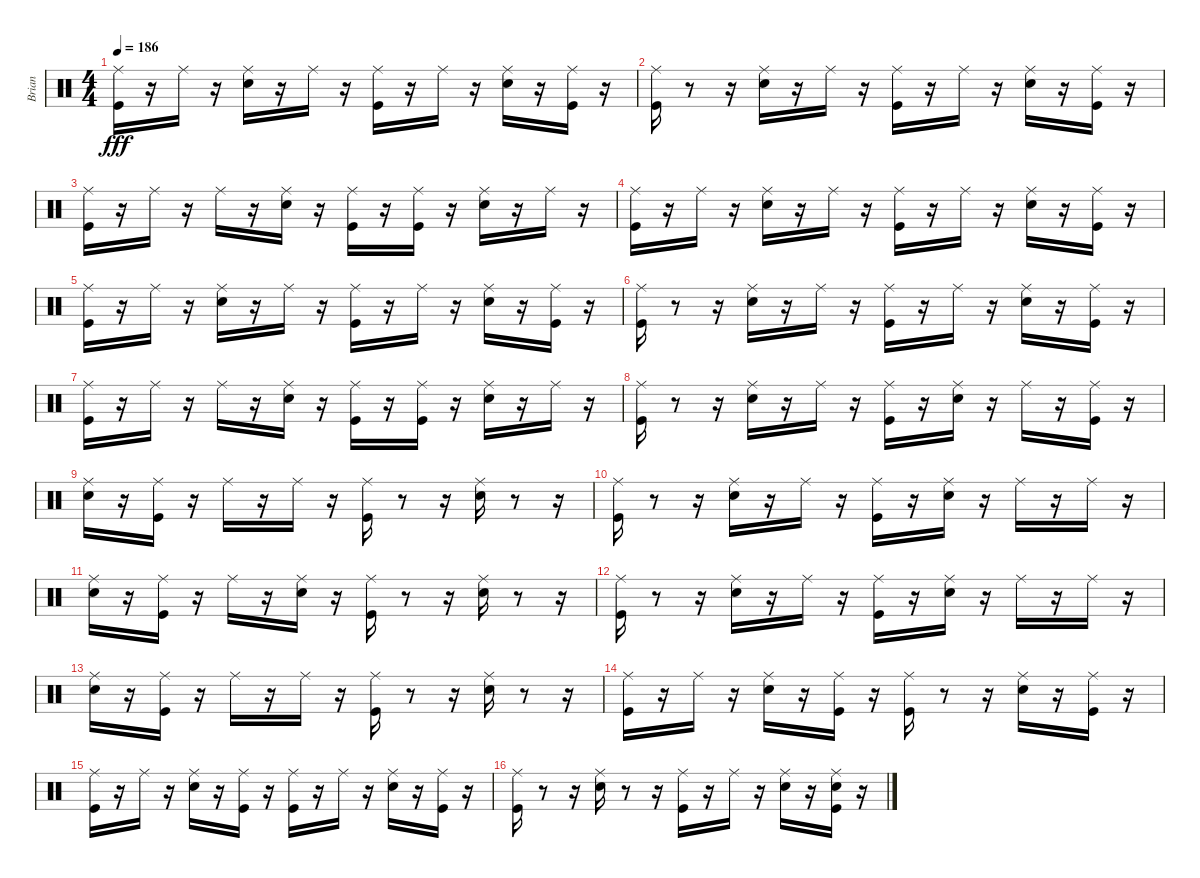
\track ("Brian" "Brian") {instrument percussion}
\staff {score}
\articulation defaults
\ts (4 4)
\tempo 186
\clef neutral
\ks c
("Ride (middle)" "Kick (hit)").16{dy fff} r.16 "Ride (middle)".16 r.16 ("Ride (middle)" "Snare (hit) 2").16 r.16 "Ride (middle)".16 r.16 ("Ride (middle)" "Kick (hit)").16 r.16 "Ride (middle)".16 r.16 ("Ride (middle)" "Snare (hit) 2").16 r.16 ("Ride (middle)" "Kick (hit)").16 r.16 |
("Ride (middle)" "Kick (hit)").16 r.8 r.16 ("Ride (middle)" "Snare (hit) 2").16 r.16 "Ride (middle)".16 r.16 ("Ride (middle)" "Kick (hit)").16 r.16 "Ride (middle)".16 r.16 ("Ride (middle)" "Snare (hit) 2").16 r.16 ("Ride (middle)" "Kick (hit)").16 r.16 |
("Ride (middle)" "Kick (hit)").16 r.16 "Ride (middle)".16 r.16 "Ride (middle)".16 r.16 ("Ride (middle)" "Snare (hit) 2").16 r.16 ("Ride (middle)" "Kick (hit)").16 r.16 ("Ride (middle)" "Kick (hit)").16 r.16 ("Ride (middle)" "Snare (hit) 2").16 r.16 "Ride (middle)".16 r.16 |
("Ride (middle)" "Kick (hit)").16 r.16 "Ride (middle)".16 r.16 ("Ride (middle)" "Snare (hit) 2").16 r.16 "Ride (middle)".16 r.16 ("Ride (middle)" "Kick (hit)").16 r.16 "Ride (middle)".16 r.16 ("Ride (middle)" "Snare (hit) 2").16 r.16 ("Ride (middle)" "Kick (hit)").16 r.16 |
("Ride (middle)" "Kick (hit)").16 r.16 "Ride (middle)".16 r.16 ("Ride (middle)" "Snare (hit) 2").16 r.16 "Ride (middle)".16 r.16 ("Ride (middle)" "Kick (hit)").16 r.16 "Ride (middle)".16 r.16 ("Ride (middle)" "Snare (hit) 2").16 r.16 ("Ride (middle)" "Kick (hit)").16 r.16 |
("Ride (middle)" "Kick (hit)").16 r.8 r.16 ("Ride (middle)" "Snare (hit) 2").16 r.16 "Ride (middle)".16 r.16 ("Ride (middle)" "Kick (hit)").16 r.16 "Ride (middle)".16 r.16 ("Ride (middle)" "Snare (hit) 2").16 r.16 ("Ride (middle)" "Kick (hit)").16 r.16 |
("Ride (middle)" "Kick (hit)").16 r.16 "Ride (middle)".16 r.16 "Ride (middle)".16 r.16 ("Ride (middle)" "Snare (hit) 2").16 r.16 ("Ride (middle)" "Kick (hit)").16 r.16 ("Ride (middle)" "Kick (hit)").16 r.16 ("Ride (middle)" "Snare (hit) 2").16 r.16 "Ride (middle)".16 r.16 |
("Ride (middle)" "Kick (hit)").16 r.8 r.16 ("Ride (middle)" "Snare (hit) 2").16 r.16 "Ride (middle)".16 r.16 ("Ride (middle)" "Kick (hit)").16 r.16 ("Ride (middle)" "Snare (hit) 2").16 r.16 "Ride (middle)".16 r.16 ("Ride (middle)" "Kick (hit)").16 r.16 |
("Ride (middle)" "Snare (hit) 2").16 r.16 ("Ride (middle)" "Kick (hit)").16 r.16 "Ride (middle)".16 r.16 "Ride (middle)".16 r.16 ("Ride (middle)" "Kick (hit)").16 r.8 r.16 ("Ride (middle)" "Snare (hit) 2").16 r.8 r.16 |
("Ride (middle)" "Kick (hit)").16 r.8 r.16 ("Ride (middle)" "Snare (hit) 2").16 r.16 "Ride (middle)".16 r.16 ("Ride (middle)" "Kick (hit)").16 r.16 ("Ride (middle)" "Snare (hit) 2").16 r.16 "Ride (middle)".16 r.16 "Ride (middle)".16 r.16 |
("Ride (middle)" "Snare (hit) 2").16 r.16 ("Ride (middle)" "Kick (hit)").16 r.16 "Ride (middle)".16 r.16 ("Ride (middle)" "Snare (hit) 2").16 r.16 ("Ride (middle)" "Kick (hit)").16 r.8 r.16 ("Ride (middle)" "Snare (hit) 2").16 r.8 r.16 |
("Ride (middle)" "Kick (hit)").16 r.8 r.16 ("Ride (middle)" "Snare (hit) 2").16 r.16 "Ride (middle)".16 r.16 ("Ride (middle)" "Kick (hit)").16 r.16 ("Ride (middle)" "Snare (hit) 2").16 r.16 "Ride (middle)".16 r.16 "Ride (middle)".16 r.16 |
("Ride (middle)" "Snare (hit) 2").16 r.16 ("Ride (middle)" "Kick (hit)").16 r.16 "Ride (middle)".16 r.16 "Ride (middle)".16 r.16 ("Ride (middle)" "Kick (hit)").16 r.8 r.16 ("Ride (middle)" "Snare (hit) 2").16 r.8 r.16 |
("Ride (middle)" "Kick (hit)").16 r.16 "Ride (middle)".16 r.16 ("Ride (middle)" "Snare (hit) 2").16 r.16 ("Ride (middle)" "Kick (hit)").16 r.16 ("Ride (middle)" "Kick (hit)").16 r.8 r.16 ("Ride (middle)" "Snare (hit) 2").16 r.16 ("Ride (middle)" "Kick (hit)").16 r.16 |
("Ride (middle)" "Kick (hit)").16 r.16 "Ride (middle)".16 r.16 ("Ride (middle)" "Snare (hit) 2").16 r.16 ("Ride (middle)" "Kick (hit)").16 r.16 ("Ride (middle)" "Kick (hit)").16 r.16 "Ride (middle)".16 r.16 ("Ride (middle)" "Snare (hit) 2").16 r.16 ("Ride (middle)" "Kick (hit)").16 r.16 |
("Ride (middle)" "Kick (hit)").16 r.8 r.16 ("Ride (middle)" "Snare (hit) 2").16 r.8 r.16 ("Ride (middle)" "Kick (hit)").16 r.16 "Ride (middle)".16 r.16 ("Ride (middle)" "Snare (hit) 2").16 r.16 ("Ride (middle)" "Snare (hit) 2" "Kick (hit)").16 r.16
